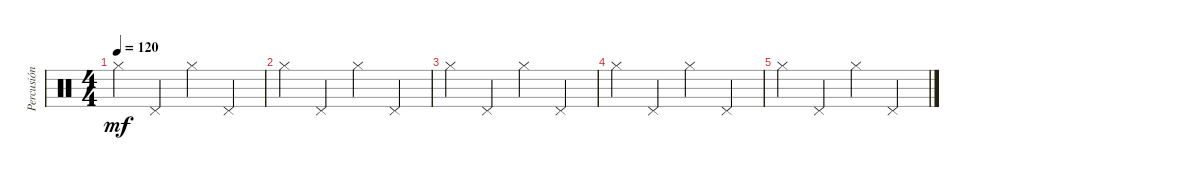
\track ("Percusión" "Percusión") {instrument percussion}
\staff {score}
\articulation defaults
\ts (4 4)
\tempo 120
\clef neutral
\ks c "Hi-Hat (closed)".4{dy mf} "Pedal Hi-Hat (hit)".4 "Hi-Hat (closed)".4 "Pedal Hi-Hat (hit)".4
|
"Hi-Hat (closed)".4 "Pedal Hi-Hat (hit)".4 "Hi-Hat (closed)".4 "Pedal Hi-Hat (hit)".4 |
"Hi-Hat (closed)".4 "Pedal Hi-Hat (hit)".4 "Hi-Hat (closed)".4 "Pedal Hi-Hat (hit)".4 |
"Hi-Hat (closed)".4 "Pedal Hi-Hat (hit)".4 "Hi-Hat (closed)".4 "Pedal Hi-Hat (hit)".4 |
"Hi-Hat (closed)".4 "Pedal Hi-Hat (hit)".4 "Hi-Hat (closed)".4 "Pedal Hi-Hat (hit)".4
